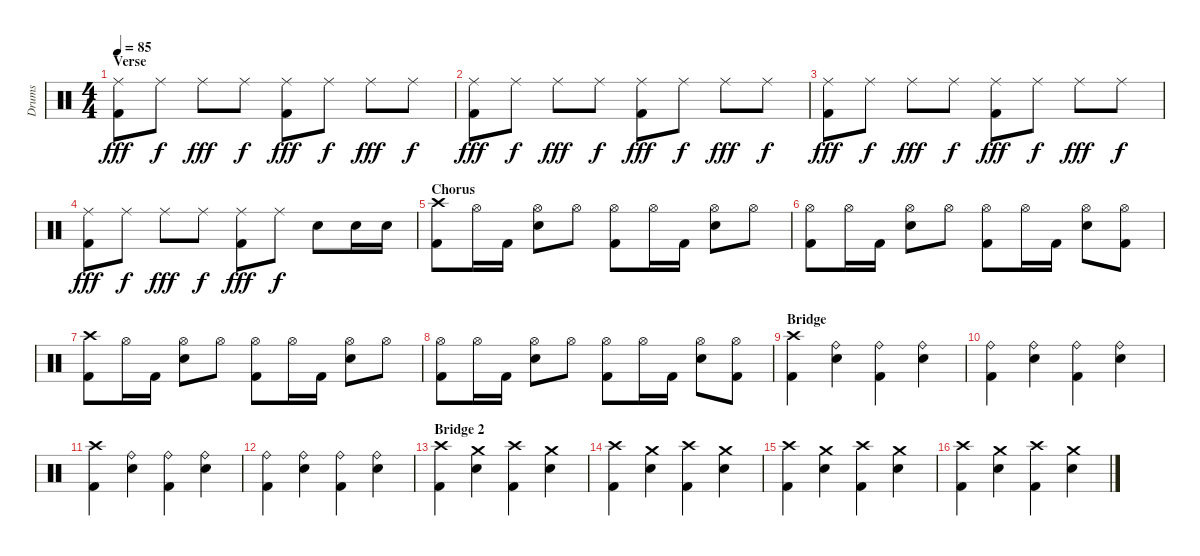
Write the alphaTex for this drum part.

\track ("Drums" "Drums") {instrument percussion}
\staff {score}
\articulation defaults
\ts (4 4)
\section ("" "Verse")
\tempo 85
\clef neutral
\ks c
("Ride (middle)" "Kick (hit) 2").8{dy fff} "Ride (middle)".8{dy f} "Ride (middle)".8{dy fff} "Ride (middle)".8{dy f} ("Ride (middle)" "Kick (hit) 2").8{dy fff} "Ride (middle)".8{dy f} "Ride (middle)".8{dy fff} "Ride (middle)".8{dy f} |
("Ride (middle)" "Kick (hit) 2").8{dy fff} "Ride (middle)".8{dy f} "Ride (middle)".8{dy fff} "Ride (middle)".8{dy f} ("Ride (middle)" "Kick (hit) 2").8{dy fff} "Ride (middle)".8{dy f} "Ride (middle)".8{dy fff} "Ride (middle)".8{dy f} |
("Ride (middle)" "Kick (hit) 2").8{dy fff} "Ride (middle)".8{dy f} "Ride (middle)".8{dy fff} "Ride (middle)".8{dy f} ("Ride (middle)" "Kick (hit) 2").8{dy fff} "Ride (middle)".8{dy f} "Ride (middle)".8{dy fff} "Ride (middle)".8{dy f} |
("Ride (middle)" "Kick (hit) 2").8{dy fff} "Ride (middle)".8{dy f} "Ride (middle)".8{dy fff} "Ride (middle)".8{dy f} ("Ride (middle)" "Kick (hit) 2").8{dy fff} "Ride (middle)".8{dy f} "Electric Snare (hit)".8 "Electric Snare (hit)".16 "Electric Snare (hit)".16 |
\section ("" "Chorus")
("Crash high (hit)" "Kick (hit) 2").8 "Hi-Hat (open)".16 "Kick (hit) 2".16 ("Hi-Hat (open)" "Electric Snare (hit)").8 "Hi-Hat (open)".8 ("Hi-Hat (open)" "Kick (hit) 2").8 "Hi-Hat (open)".16 "Kick (hit) 2".16 ("Hi-Hat (open)" "Electric Snare (hit)").8 "Hi-Hat (open)".8 |
("Hi-Hat (open)" "Kick (hit) 2").8 "Hi-Hat (open)".16 "Kick (hit) 2".16 ("Hi-Hat (open)" "Electric Snare (hit)").8 "Hi-Hat (open)".8 ("Hi-Hat (open)" "Kick (hit) 2").8 "Hi-Hat (open)".16 "Kick (hit) 2".16 ("Hi-Hat (open)" "Electric Snare (hit)").8 ("Hi-Hat (open)" "Kick (hit) 2").8 |
("Crash high (hit)" "Kick (hit) 2").8 "Hi-Hat (open)".16 "Kick (hit) 2".16 ("Hi-Hat (open)" "Electric Snare (hit)").8 "Hi-Hat (open)".8 ("Hi-Hat (open)" "Kick (hit) 2").8 "Hi-Hat (open)".16 "Kick (hit) 2".16 ("Hi-Hat (open)" "Electric Snare (hit)").8 "Hi-Hat (open)".8 |
("Hi-Hat (open)" "Kick (hit) 2").8 "Hi-Hat (open)".16 "Kick (hit) 2".16 ("Hi-Hat (open)" "Electric Snare (hit)").8 "Hi-Hat (open)".8 ("Hi-Hat (open)" "Kick (hit) 2").8 "Hi-Hat (open)".16 "Kick (hit) 2".16 ("Hi-Hat (open)" "Electric Snare (hit)").8 ("Hi-Hat (open)" "Kick (hit) 2").8 |
\section ("" "Bridge")
("Crash high (hit)" "Kick (hit) 2").4 ("Ride (bell)" "Electric Snare (hit)").4 ("Ride (bell)" "Kick (hit) 2").4 ("Ride (bell)" "Electric Snare (hit)").4 |
("Ride (bell)" "Kick (hit) 2").4 ("Ride (bell)" "Electric Snare (hit)").4 ("Ride (bell)" "Kick (hit) 2").4 ("Ride (bell)" "Electric Snare (hit)").4 |
("Crash high (hit)" "Kick (hit) 2").4 ("Ride (bell)" "Electric Snare (hit)").4 ("Ride (bell)" "Kick (hit) 2").4 ("Ride (bell)" "Electric Snare (hit)").4 |
("Ride (bell)" "Kick (hit) 2").4 ("Ride (bell)" "Electric Snare (hit)").4 ("Ride (bell)" "Kick (hit) 2").4 ("Ride (bell)" "Electric Snare (hit)").4 |
\section ("" "Bridge 2")
("Crash high (hit)" "Kick (hit) 2").4 ("Crash medium (hit)" "Electric Snare (hit)").4 ("Crash high (hit)" "Kick (hit) 2").4 ("Crash medium (hit)" "Electric Snare (hit)").4 |
("Crash high (hit)" "Kick (hit) 2").4 ("Crash medium (hit)" "Electric Snare (hit)").4 ("Crash high (hit)" "Kick (hit) 2").4 ("Crash medium (hit)" "Electric Snare (hit)").4 |
("Crash high (hit)" "Kick (hit) 2").4 ("Crash medium (hit)" "Electric Snare (hit)").4 ("Crash high (hit)" "Kick (hit) 2").4 ("Crash medium (hit)" "Electric Snare (hit)").4 |
("Crash high (hit)" "Kick (hit) 2").4 ("Crash medium (hit)" "Electric Snare (hit)").4 ("Crash high (hit)" "Kick (hit) 2").4 ("Crash medium (hit)" "Electric Snare (hit)").4
